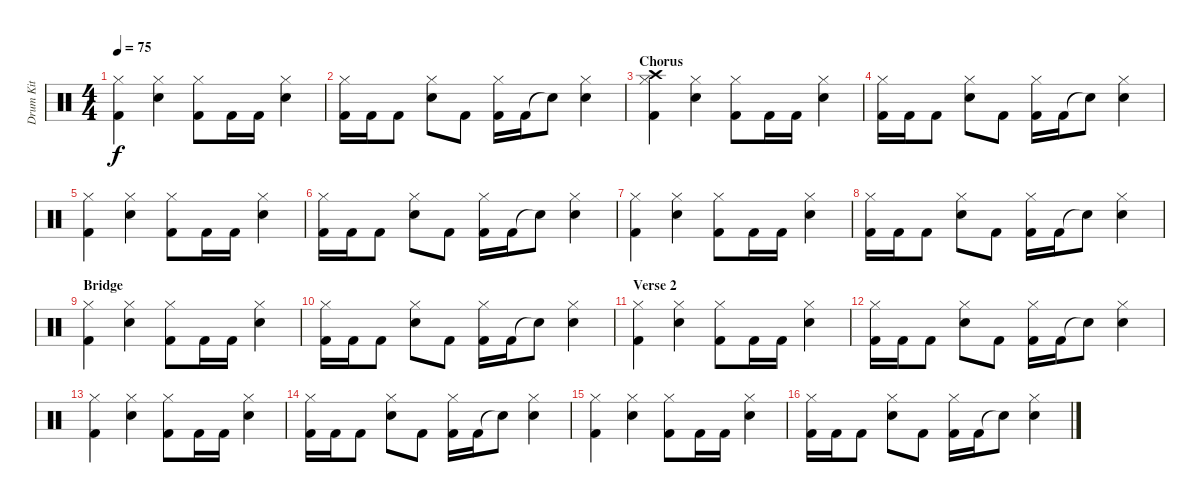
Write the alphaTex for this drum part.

\track ("Drum Kit" "Drum Kit") {instrument percussion}
\staff {score}
\articulation defaults
\ts (4 4)
\tempo 75
\clef neutral
\ks c
("Kick (hit) 2" "Hi-Hat (closed)").4{dy f} ("Electric Snare (hit)" "Hi-Hat (closed)").4 ("Kick (hit) 2" "Hi-Hat (closed)").8 "Kick (hit) 2".16 "Kick (hit) 2".16 ("Electric Snare (hit)" "Hi-Hat (closed)").4 |
\section ("" "")
("Kick (hit) 2" "Hi-Hat (closed)").16 "Kick (hit) 2".16 "Kick (hit) 2".8 ("Electric Snare (hit)" "Hi-Hat (closed)").8 "Kick (hit) 2".8 ("Kick (hit) 2" "Hi-Hat (closed)").16 "Kick (hit) 2".16 "Snare (hit)"{t}.8 ("Electric Snare (hit)" "Hi-Hat (closed)").4 |
\section ("" "Chorus")
("Crash high (hit)" "Kick (hit) 2" "Hi-Hat (closed)").4 ("Electric Snare (hit)" "Hi-Hat (closed)").4 ("Kick (hit) 2" "Hi-Hat (closed)").8 "Kick (hit) 2".16 "Kick (hit) 2".16 ("Electric Snare (hit)" "Hi-Hat (closed)").4 |
("Kick (hit) 2" "Hi-Hat (closed)").16 "Kick (hit) 2".16 "Kick (hit) 2".8 ("Electric Snare (hit)" "Hi-Hat (closed)").8 "Kick (hit) 2".8 ("Kick (hit) 2" "Hi-Hat (closed)").16 "Kick (hit) 2".16 "Snare (hit)"{t}.8 ("Electric Snare (hit)" "Hi-Hat (closed)").4 |
("Kick (hit) 2" "Hi-Hat (closed)").4 ("Electric Snare (hit)" "Hi-Hat (closed)").4 ("Kick (hit) 2" "Hi-Hat (closed)").8 "Kick (hit) 2".16 "Kick (hit) 2".16 ("Electric Snare (hit)" "Hi-Hat (closed)").4 |
("Kick (hit) 2" "Hi-Hat (closed)").16 "Kick (hit) 2".16 "Kick (hit) 2".8 ("Electric Snare (hit)" "Hi-Hat (closed)").8 "Kick (hit) 2".8 ("Kick (hit) 2" "Hi-Hat (closed)").16 "Kick (hit) 2".16 "Snare (hit)"{t}.8 ("Electric Snare (hit)" "Hi-Hat (closed)").4 |
("Kick (hit) 2" "Hi-Hat (closed)").4 ("Electric Snare (hit)" "Hi-Hat (closed)").4 ("Kick (hit) 2" "Hi-Hat (closed)").8 "Kick (hit) 2".16 "Kick (hit) 2".16 ("Electric Snare (hit)" "Hi-Hat (closed)").4 |
("Kick (hit) 2" "Hi-Hat (closed)").16 "Kick (hit) 2".16 "Kick (hit) 2".8 ("Electric Snare (hit)" "Hi-Hat (closed)").8 "Kick (hit) 2".8 ("Kick (hit) 2" "Hi-Hat (closed)").16 "Kick (hit) 2".16 "Snare (hit)"{t}.8 ("Electric Snare (hit)" "Hi-Hat (closed)").4 |
\section ("" "Bridge")
("Kick (hit) 2" "Hi-Hat (closed)").4 ("Electric Snare (hit)" "Hi-Hat (closed)").4 ("Kick (hit) 2" "Hi-Hat (closed)").8 "Kick (hit) 2".16 "Kick (hit) 2".16 ("Electric Snare (hit)" "Hi-Hat (closed)").4 |
("Kick (hit) 2" "Hi-Hat (closed)").16 "Kick (hit) 2".16 "Kick (hit) 2".8 ("Electric Snare (hit)" "Hi-Hat (closed)").8 "Kick (hit) 2".8 ("Kick (hit) 2" "Hi-Hat (closed)").16 "Kick (hit) 2".16 "Snare (hit)"{t}.8 ("Electric Snare (hit)" "Hi-Hat (closed)").4 |
\section ("" "Verse 2")
("Kick (hit) 2" "Hi-Hat (closed)").4 ("Electric Snare (hit)" "Hi-Hat (closed)").4 ("Kick (hit) 2" "Hi-Hat (closed)").8 "Kick (hit) 2".16 "Kick (hit) 2".16 ("Electric Snare (hit)" "Hi-Hat (closed)").4 |
("Kick (hit) 2" "Hi-Hat (closed)").16 "Kick (hit) 2".16 "Kick (hit) 2".8 ("Electric Snare (hit)" "Hi-Hat (closed)").8 "Kick (hit) 2".8 ("Kick (hit) 2" "Hi-Hat (closed)").16 "Kick (hit) 2".16 "Snare (hit)"{t}.8 ("Electric Snare (hit)" "Hi-Hat (closed)").4 |
("Kick (hit) 2" "Hi-Hat (closed)").4 ("Electric Snare (hit)" "Hi-Hat (closed)").4 ("Kick (hit) 2" "Hi-Hat (closed)").8 "Kick (hit) 2".16 "Kick (hit) 2".16 ("Electric Snare (hit)" "Hi-Hat (closed)").4 |
("Kick (hit) 2" "Hi-Hat (closed)").16 "Kick (hit) 2".16 "Kick (hit) 2".8 ("Electric Snare (hit)" "Hi-Hat (closed)").8 "Kick (hit) 2".8 ("Kick (hit) 2" "Hi-Hat (closed)").16 "Kick (hit) 2".16 "Snare (hit)"{t}.8 ("Electric Snare (hit)" "Hi-Hat (closed)").4 |
("Kick (hit) 2" "Hi-Hat (closed)").4 ("Electric Snare (hit)" "Hi-Hat (closed)").4 ("Kick (hit) 2" "Hi-Hat (closed)").8 "Kick (hit) 2".16 "Kick (hit) 2".16 ("Electric Snare (hit)" "Hi-Hat (closed)").4 |
("Kick (hit) 2" "Hi-Hat (closed)").16 "Kick (hit) 2".16 "Kick (hit) 2".8 ("Electric Snare (hit)" "Hi-Hat (closed)").8 "Kick (hit) 2".8 ("Kick (hit) 2" "Hi-Hat (closed)").16 "Kick (hit) 2".16 "Snare (hit)"{t}.8 ("Electric Snare (hit)" "Hi-Hat (closed)").4
